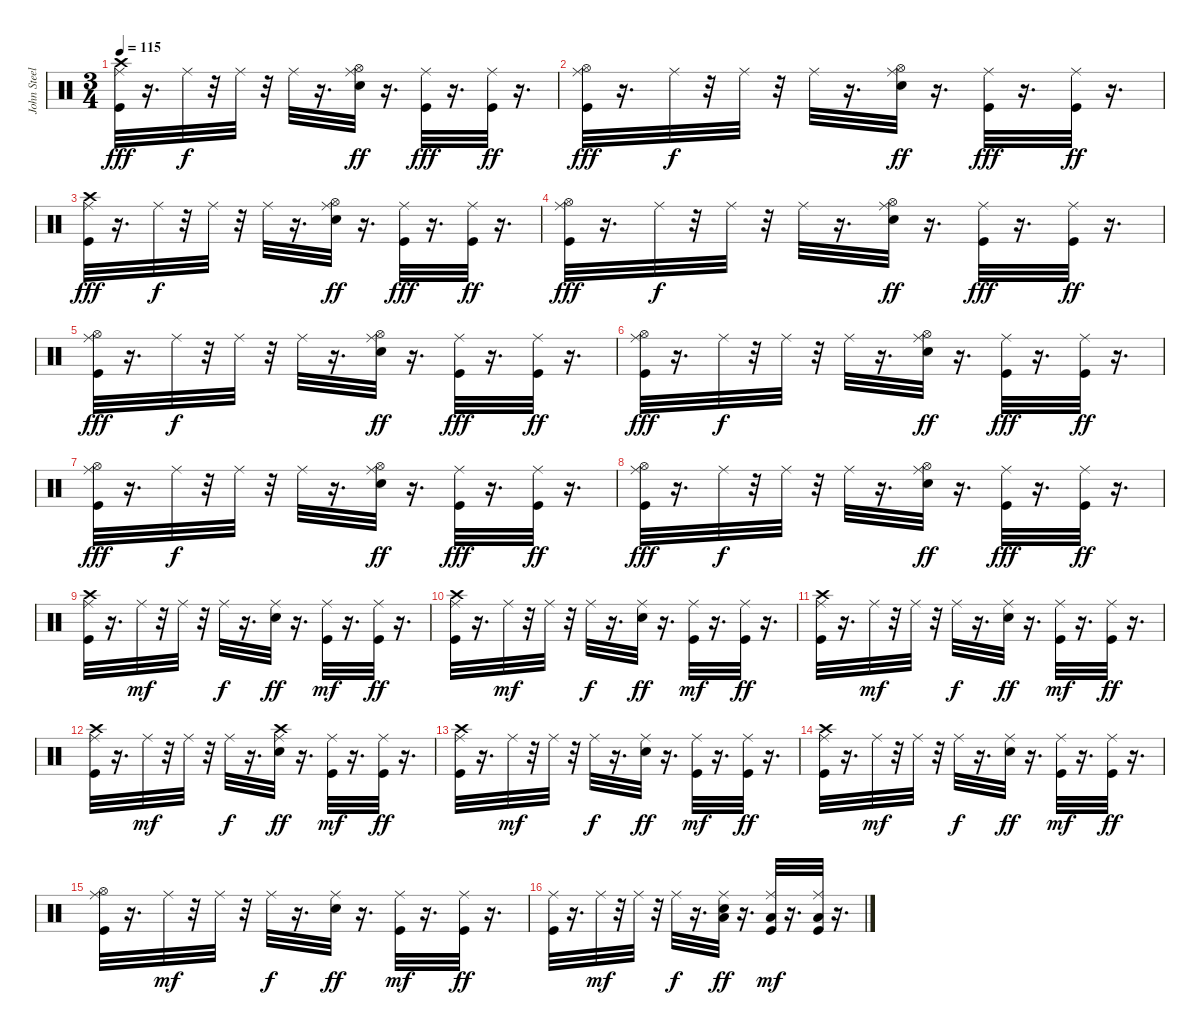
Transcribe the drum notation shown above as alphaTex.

\track ("John Steel" "John Steel") {instrument percussion}
\staff {score}
\articulation defaults
\ts (3 4)
\tempo 115
\clef neutral
\ks c
("Kick (hit)" "Crash high (hit)" "Ride (middle)").32{dy fff} r.16{d} "Ride (middle)".32{dy f} r.32 "Ride (middle)".32 r.32 "Ride (middle)".32 r.16{d} ("Snare (hit) 2" "Hi-Hat (open)" "Ride (middle)").32{dy ff} r.16{d} ("Kick (hit)" "Ride (middle)").32{dy fff} r.16{d} ("Kick (hit)" "Ride (middle)").32{dy ff} r.16{d} |
("Kick (hit)" "Hi-Hat (open)" "Ride (middle)").32{dy fff} r.16{d} "Ride (middle)".32{dy f} r.32 "Ride (middle)".32 r.32 "Ride (middle)".32 r.16{d} ("Snare (hit) 2" "Hi-Hat (open)" "Ride (middle)").32{dy ff} r.16{d} ("Kick (hit)" "Ride (middle)").32{dy fff} r.16{d} ("Kick (hit)" "Ride (middle)").32{dy ff} r.16{d} |
("Kick (hit)" "Crash high (hit)" "Ride (middle)").32{dy fff} r.16{d} "Ride (middle)".32{dy f} r.32 "Ride (middle)".32 r.32 "Ride (middle)".32 r.16{d} ("Snare (hit) 2" "Hi-Hat (open)" "Ride (middle)").32{dy ff} r.16{d} ("Kick (hit)" "Ride (middle)").32{dy fff} r.16{d} ("Kick (hit)" "Ride (middle)").32{dy ff} r.16{d} |
("Kick (hit)" "Hi-Hat (open)" "Ride (middle)").32{dy fff} r.16{d} "Ride (middle)".32{dy f} r.32 "Ride (middle)".32 r.32 "Ride (middle)".32 r.16{d} ("Snare (hit) 2" "Hi-Hat (open)" "Ride (middle)").32{dy ff} r.16{d} ("Kick (hit)" "Ride (middle)").32{dy fff} r.16{d} ("Kick (hit)" "Ride (middle)").32{dy ff} r.16{d} |
("Kick (hit)" "Hi-Hat (open)" "Ride (middle)").32{dy fff} r.16{d} "Ride (middle)".32{dy f} r.32 "Ride (middle)".32 r.32 "Ride (middle)".32 r.16{d} ("Snare (hit) 2" "Hi-Hat (open)" "Ride (middle)").32{dy ff} r.16{d} ("Kick (hit)" "Ride (middle)").32{dy fff} r.16{d} ("Kick (hit)" "Ride (middle)").32{dy ff} r.16{d} |
("Kick (hit)" "Hi-Hat (open)" "Ride (middle)").32{dy fff} r.16{d} "Ride (middle)".32{dy f} r.32 "Ride (middle)".32 r.32 "Ride (middle)".32 r.16{d} ("Snare (hit) 2" "Hi-Hat (open)" "Ride (middle)").32{dy ff} r.16{d} ("Kick (hit)" "Ride (middle)").32{dy fff} r.16{d} ("Kick (hit)" "Ride (middle)").32{dy ff} r.16{d} |
("Kick (hit)" "Hi-Hat (open)" "Ride (middle)").32{dy fff} r.16{d} "Ride (middle)".32{dy f} r.32 "Ride (middle)".32 r.32 "Ride (middle)".32 r.16{d} ("Snare (hit) 2" "Hi-Hat (open)" "Ride (middle)").32{dy ff} r.16{d} ("Kick (hit)" "Ride (middle)").32{dy fff} r.16{d} ("Kick (hit)" "Ride (middle)").32{dy ff} r.16{d} |
("Kick (hit)" "Hi-Hat (open)" "Ride (middle)").32{dy fff} r.16{d} "Ride (middle)".32{dy f} r.32 "Ride (middle)".32 r.32 "Ride (middle)".32 r.16{d} ("Snare (hit) 2" "Hi-Hat (open)" "Ride (middle)").32{dy ff} r.16{d} ("Kick (hit)" "Ride (middle)").32{dy fff} r.16{d} ("Kick (hit)" "Ride (middle)").32{dy ff} r.16{d} |
("Kick (hit)" "Crash high (hit)" "Ride (middle)").32 r.16{d} "Ride (middle)".32{dy mf} r.32 "Ride (middle)".32 r.32 "Ride (middle)".32{dy f} r.16{d} ("Snare (hit) 2" "Ride (middle)").32{dy ff} r.16{d} ("Kick (hit)" "Ride (middle)").32{dy mf} r.16{d} ("Kick (hit)" "Ride (middle)").32{dy ff} r.16{d} |
("Kick (hit)" "Crash high (hit)" "Ride (middle)").32 r.16{d} "Ride (middle)".32{dy mf} r.32 "Ride (middle)".32 r.32 "Ride (middle)".32{dy f} r.16{d} ("Snare (hit) 2" "Ride (middle)").32{dy ff} r.16{d} ("Kick (hit)" "Ride (middle)").32{dy mf} r.16{d} ("Kick (hit)" "Ride (middle)").32{dy ff} r.16{d} |
("Kick (hit)" "Crash high (hit)" "Ride (middle)").32 r.16{d} "Ride (middle)".32{dy mf} r.32 "Ride (middle)".32 r.32 "Ride (middle)".32{dy f} r.16{d} ("Snare (hit) 2" "Ride (middle)").32{dy ff} r.16{d} ("Kick (hit)" "Ride (middle)").32{dy mf} r.16{d} ("Kick (hit)" "Ride (middle)").32{dy ff} r.16{d} |
("Kick (hit)" "Crash high (hit)" "Ride (middle)").32 r.16{d} "Ride (middle)".32{dy mf} r.32 "Ride (middle)".32 r.32 "Ride (middle)".32{dy f} r.16{d} ("Snare (hit) 2" "Crash high (hit)" "Ride (middle)").32{dy ff} r.16{d} ("Kick (hit)" "Ride (middle)").32{dy mf} r.16{d} ("Kick (hit)" "Ride (middle)").32{dy ff} r.16{d} |
("Kick (hit)" "Crash high (hit)" "Ride (middle)").32 r.16{d} "Ride (middle)".32{dy mf} r.32 "Ride (middle)".32 r.32 "Ride (middle)".32{dy f} r.16{d} ("Snare (hit) 2" "Ride (middle)").32{dy ff} r.16{d} ("Kick (hit)" "Ride (middle)").32{dy mf} r.16{d} ("Kick (hit)" "Ride (middle)").32{dy ff} r.16{d} |
("Kick (hit)" "Crash high (hit)" "Ride (middle)").32 r.16{d} "Ride (middle)".32{dy mf} r.32 "Ride (middle)".32 r.32 "Ride (middle)".32{dy f} r.16{d} ("Snare (hit) 2" "Ride (middle)").32{dy ff} r.16{d} ("Kick (hit)" "Ride (middle)").32{dy mf} r.16{d} ("Kick (hit)" "Ride (middle)").32{dy ff} r.16{d} |
("Kick (hit)" "Hi-Hat (open)" "Ride (middle)").32 r.16{d} "Ride (middle)".32{dy mf} r.32 "Ride (middle)".32 r.32 "Ride (middle)".32{dy f} r.16{d} ("Snare (hit) 2" "Ride (middle)").32{dy ff} r.16{d} ("Kick (hit)" "Ride (middle)").32{dy mf} r.16{d} ("Kick (hit)" "Ride (middle)").32{dy ff} r.16{d} |
("Kick (hit)" "Ride (middle)").32 r.16{d} "Ride (middle)".32{dy mf} r.32 "Ride (middle)".32 r.32 "Ride (middle)".32{dy f} r.16{d} ("Snare (hit) 2" "Low Tom (hit)" "Ride (middle)").32{dy ff} r.16{d} ("Kick (hit)" "Low Tom (hit)" "Ride (middle)").32{dy mf} r.16{d} ("Kick (hit)" "Low Tom (hit)" "Ride (middle)").32 r.16{d}
